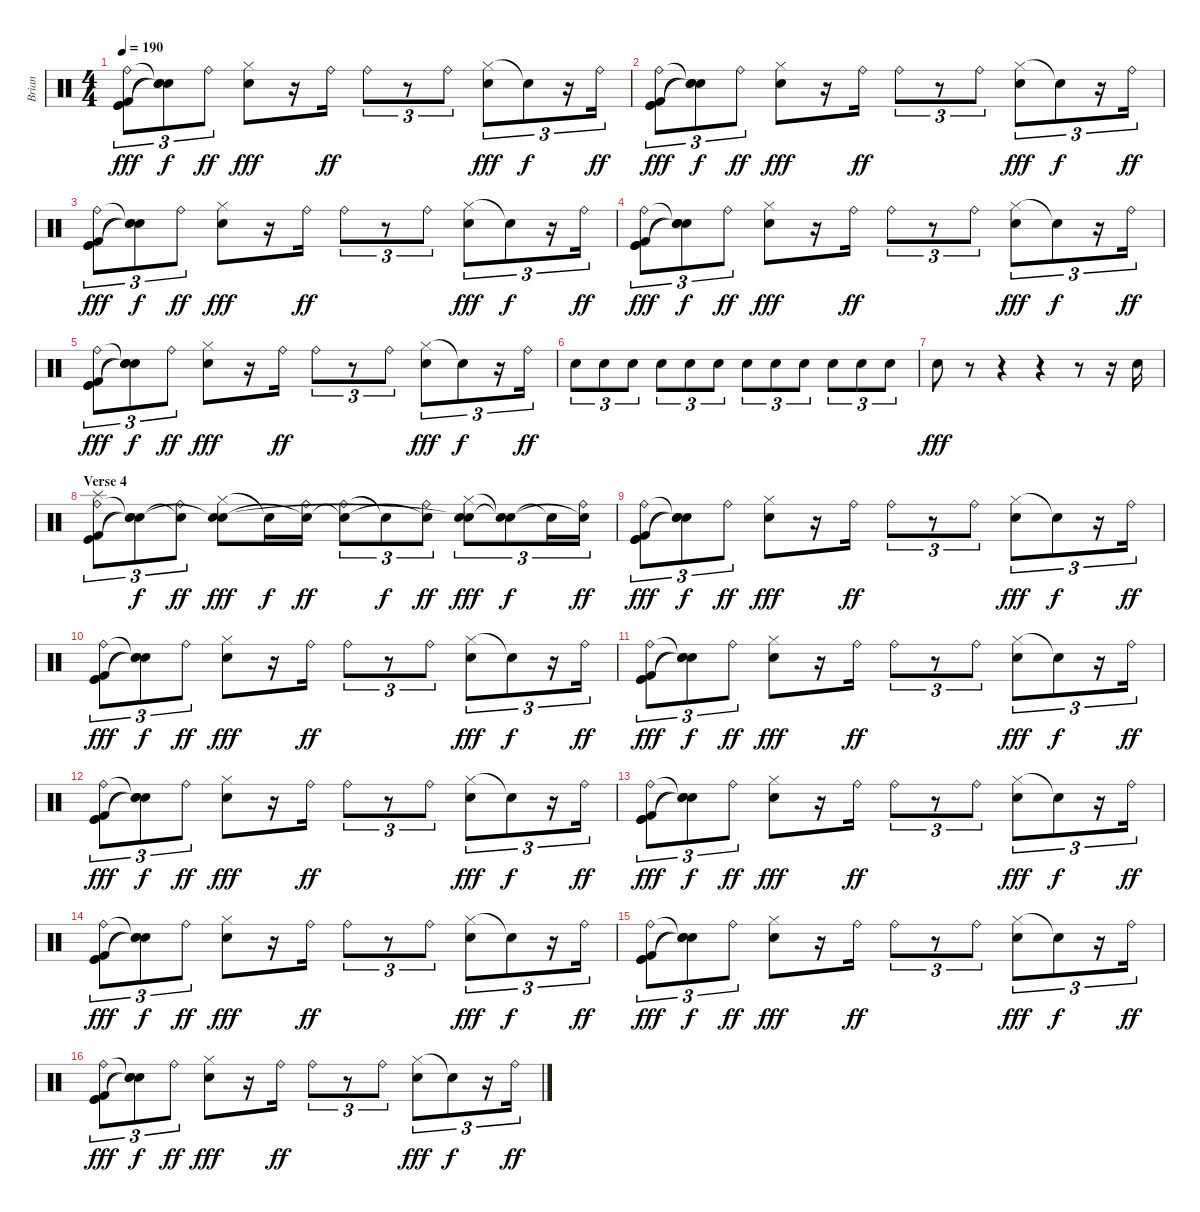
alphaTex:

\track ("Brian" "Brian") {instrument percussion}
\staff {score}
\articulation defaults
\ts (4 4)
\tempo 190
\clef neutral
\ks c
("Ride (bell)" "Kick (hit)" "Kick (hit) 2" "Kick (hit)").8{tu (3 2) dy fff} ("Snare (hit)"{t} "Snare (hit)"{t} "Snare (hit)"{t}).8{tu (3 2) dy f} "Ride (bell)".8{tu (3 2) dy ff} ("Hi-Hat (closed)" "Electric Snare (hit)").8{dy fff} r.16 "Ride (bell)".16{dy ff} "Ride (bell)".8{tu (3 2)} r.8{tu (3 2)} "Ride (bell)".8{tu (3 2)} ("Hi-Hat (closed)" "Electric Snare (hit)").8{tu (3 2) dy fff} "Snare (hit)"{t}.8{tu (3 2) dy f} r.16{tu (3 2)} "Ride (bell)".16{tu (3 2) dy ff} |
("Ride (bell)" "Kick (hit)" "Kick (hit) 2" "Kick (hit)").8{tu (3 2) dy fff} ("Snare (hit)"{t} "Snare (hit)"{t} "Snare (hit)"{t}).8{tu (3 2) dy f} "Ride (bell)".8{tu (3 2) dy ff} ("Hi-Hat (closed)" "Electric Snare (hit)").8{dy fff} r.16 "Ride (bell)".16{dy ff} "Ride (bell)".8{tu (3 2)} r.8{tu (3 2)} "Ride (bell)".8{tu (3 2)} ("Hi-Hat (closed)" "Electric Snare (hit)").8{tu (3 2) dy fff} "Snare (hit)"{t}.8{tu (3 2) dy f} r.16{tu (3 2)} "Ride (bell)".16{tu (3 2) dy ff} |
("Ride (bell)" "Kick (hit)" "Kick (hit) 2" "Kick (hit)").8{tu (3 2) dy fff} ("Snare (hit)"{t} "Snare (hit)"{t} "Snare (hit)"{t}).8{tu (3 2) dy f} "Ride (bell)".8{tu (3 2) dy ff} ("Hi-Hat (closed)" "Electric Snare (hit)").8{dy fff} r.16 "Ride (bell)".16{dy ff} "Ride (bell)".8{tu (3 2)} r.8{tu (3 2)} "Ride (bell)".8{tu (3 2)} ("Hi-Hat (closed)" "Electric Snare (hit)").8{tu (3 2) dy fff} "Snare (hit)"{t}.8{tu (3 2) dy f} r.16{tu (3 2)} "Ride (bell)".16{tu (3 2) dy ff} |
("Ride (bell)" "Kick (hit)" "Kick (hit) 2" "Kick (hit)").8{tu (3 2) dy fff} ("Snare (hit)"{t} "Snare (hit)"{t} "Snare (hit)"{t}).8{tu (3 2) dy f} "Ride (bell)".8{tu (3 2) dy ff} ("Hi-Hat (closed)" "Electric Snare (hit)").8{dy fff} r.16 "Ride (bell)".16{dy ff} "Ride (bell)".8{tu (3 2)} r.8{tu (3 2)} "Ride (bell)".8{tu (3 2)} ("Hi-Hat (closed)" "Electric Snare (hit)").8{tu (3 2) dy fff} "Snare (hit)"{t}.8{tu (3 2) dy f} r.16{tu (3 2)} "Ride (bell)".16{tu (3 2) dy ff} |
("Ride (bell)" "Kick (hit)" "Kick (hit) 2" "Kick (hit)").8{tu (3 2) dy fff} ("Snare (hit)"{t} "Snare (hit)"{t} "Snare (hit)"{t}).8{tu (3 2) dy f} "Ride (bell)".8{tu (3 2) dy ff} ("Hi-Hat (closed)" "Electric Snare (hit)").8{dy fff} r.16 "Ride (bell)".16{dy ff} "Ride (bell)".8{tu (3 2)} r.8{tu (3 2)} "Ride (bell)".8{tu (3 2)} ("Hi-Hat (closed)" "Electric Snare (hit)").8{tu (3 2) dy fff} "Snare (hit)"{t}.8{tu (3 2) dy f} r.16{tu (3 2)} "Ride (bell)".16{tu (3 2) dy ff} |
"Electric Snare (hit)".8{tu (3 2)} "Electric Snare (hit)".8{tu (3 2)} "Electric Snare (hit)".8{tu (3 2)} "Electric Snare (hit)".8{tu (3 2)} "Electric Snare (hit)".8{tu (3 2)} "Electric Snare (hit)".8{tu (3 2)} "Electric Snare (hit)".8{tu (3 2)} "Electric Snare (hit)".8{tu (3 2)} "Electric Snare (hit)".8{tu (3 2)} "Electric Snare (hit)".8{tu (3 2)} "Electric Snare (hit)".8{tu (3 2)} "Electric Snare (hit)".8{tu (3 2)} |
"Electric Snare (hit)".8{dy fff} r.8 r.4 r.4 r.8 r.16 "Electric Snare (hit)".16 |
\section ("" "Verse 4")
("Ride (bell)" "Kick (hit)" "Kick (hit) 2" "Splash (hit)").8{tu (3 2)} ("Snare (hit)"{t} "Snare (hit)"{t} "Snare (hit)"{t}).8{tu (3 2) dy f} ("Ride (bell)" "Snare (hit)"{t}).8{tu (3 2) dy ff} ("Hi-Hat (closed)" "Electric Snare (hit)" "Snare (hit)"{t}).8{dy fff} "Snare (hit)"{t}.16{dy f} ("Ride (bell)" "Snare (hit)"{t}).16{dy ff} ("Ride (bell)" "Snare (hit)"{t}).8{tu (3 2)} "Snare (hit)"{t}.8{tu (3 2) dy f} ("Ride (bell)" "Snare (hit)"{t}).8{tu (3 2) dy ff} ("Hi-Hat (closed)" "Electric Snare (hit)" "Snare (hit)"{t}).8{tu (3 2) dy fff} ("Snare (hit)"{t} "Snare (hit)"{t}).8{tu (3 2) dy f} "Snare (hit)"{t}.16{tu (3 2)} ("Ride (bell)" "Snare (hit)"{t}).16{tu (3 2) dy ff} |
("Ride (bell)" "Kick (hit)" "Kick (hit) 2" "Kick (hit)").8{tu (3 2) dy fff} ("Snare (hit)"{t} "Snare (hit)"{t} "Snare (hit)"{t}).8{tu (3 2) dy f} "Ride (bell)".8{tu (3 2) dy ff} ("Hi-Hat (closed)" "Electric Snare (hit)").8{dy fff} r.16 "Ride (bell)".16{dy ff} "Ride (bell)".8{tu (3 2)} r.8{tu (3 2)} "Ride (bell)".8{tu (3 2)} ("Hi-Hat (closed)" "Electric Snare (hit)").8{tu (3 2) dy fff} "Snare (hit)"{t}.8{tu (3 2) dy f} r.16{tu (3 2)} "Ride (bell)".16{tu (3 2) dy ff} |
("Ride (bell)" "Kick (hit)" "Kick (hit) 2" "Kick (hit)").8{tu (3 2) dy fff} ("Snare (hit)"{t} "Snare (hit)"{t} "Snare (hit)"{t}).8{tu (3 2) dy f} "Ride (bell)".8{tu (3 2) dy ff} ("Hi-Hat (closed)" "Electric Snare (hit)").8{dy fff} r.16 "Ride (bell)".16{dy ff} "Ride (bell)".8{tu (3 2)} r.8{tu (3 2)} "Ride (bell)".8{tu (3 2)} ("Hi-Hat (closed)" "Electric Snare (hit)").8{tu (3 2) dy fff} "Snare (hit)"{t}.8{tu (3 2) dy f} r.16{tu (3 2)} "Ride (bell)".16{tu (3 2) dy ff} |
("Ride (bell)" "Kick (hit)" "Kick (hit) 2" "Kick (hit)").8{tu (3 2) dy fff} ("Snare (hit)"{t} "Snare (hit)"{t} "Snare (hit)"{t}).8{tu (3 2) dy f} "Ride (bell)".8{tu (3 2) dy ff} ("Hi-Hat (closed)" "Electric Snare (hit)").8{dy fff} r.16 "Ride (bell)".16{dy ff} "Ride (bell)".8{tu (3 2)} r.8{tu (3 2)} "Ride (bell)".8{tu (3 2)} ("Hi-Hat (closed)" "Electric Snare (hit)").8{tu (3 2) dy fff} "Snare (hit)"{t}.8{tu (3 2) dy f} r.16{tu (3 2)} "Ride (bell)".16{tu (3 2) dy ff} |
("Ride (bell)" "Kick (hit)" "Kick (hit) 2" "Kick (hit)").8{tu (3 2) dy fff} ("Snare (hit)"{t} "Snare (hit)"{t} "Snare (hit)"{t}).8{tu (3 2) dy f} "Ride (bell)".8{tu (3 2) dy ff} ("Hi-Hat (closed)" "Electric Snare (hit)").8{dy fff} r.16 "Ride (bell)".16{dy ff} "Ride (bell)".8{tu (3 2)} r.8{tu (3 2)} "Ride (bell)".8{tu (3 2)} ("Hi-Hat (closed)" "Electric Snare (hit)").8{tu (3 2) dy fff} "Snare (hit)"{t}.8{tu (3 2) dy f} r.16{tu (3 2)} "Ride (bell)".16{tu (3 2) dy ff} |
("Ride (bell)" "Kick (hit)" "Kick (hit) 2" "Kick (hit)").8{tu (3 2) dy fff} ("Snare (hit)"{t} "Snare (hit)"{t} "Snare (hit)"{t}).8{tu (3 2) dy f} "Ride (bell)".8{tu (3 2) dy ff} ("Hi-Hat (closed)" "Electric Snare (hit)").8{dy fff} r.16 "Ride (bell)".16{dy ff} "Ride (bell)".8{tu (3 2)} r.8{tu (3 2)} "Ride (bell)".8{tu (3 2)} ("Hi-Hat (closed)" "Electric Snare (hit)").8{tu (3 2) dy fff} "Snare (hit)"{t}.8{tu (3 2) dy f} r.16{tu (3 2)} "Ride (bell)".16{tu (3 2) dy ff} |
("Ride (bell)" "Kick (hit)" "Kick (hit) 2" "Kick (hit)").8{tu (3 2) dy fff} ("Snare (hit)"{t} "Snare (hit)"{t} "Snare (hit)"{t}).8{tu (3 2) dy f} "Ride (bell)".8{tu (3 2) dy ff} ("Hi-Hat (closed)" "Electric Snare (hit)").8{dy fff} r.16 "Ride (bell)".16{dy ff} "Ride (bell)".8{tu (3 2)} r.8{tu (3 2)} "Ride (bell)".8{tu (3 2)} ("Hi-Hat (closed)" "Electric Snare (hit)").8{tu (3 2) dy fff} "Snare (hit)"{t}.8{tu (3 2) dy f} r.16{tu (3 2)} "Ride (bell)".16{tu (3 2) dy ff} |
("Ride (bell)" "Kick (hit)" "Kick (hit) 2" "Kick (hit)").8{tu (3 2) dy fff} ("Snare (hit)"{t} "Snare (hit)"{t} "Snare (hit)"{t}).8{tu (3 2) dy f} "Ride (bell)".8{tu (3 2) dy ff} ("Hi-Hat (closed)" "Electric Snare (hit)").8{dy fff} r.16 "Ride (bell)".16{dy ff} "Ride (bell)".8{tu (3 2)} r.8{tu (3 2)} "Ride (bell)".8{tu (3 2)} ("Hi-Hat (closed)" "Electric Snare (hit)").8{tu (3 2) dy fff} "Snare (hit)"{t}.8{tu (3 2) dy f} r.16{tu (3 2)} "Ride (bell)".16{tu (3 2) dy ff} |
("Ride (bell)" "Kick (hit)" "Kick (hit) 2" "Kick (hit)").8{tu (3 2) dy fff} ("Snare (hit)"{t} "Snare (hit)"{t} "Snare (hit)"{t}).8{tu (3 2) dy f} "Ride (bell)".8{tu (3 2) dy ff} ("Hi-Hat (closed)" "Electric Snare (hit)").8{dy fff} r.16 "Ride (bell)".16{dy ff} "Ride (bell)".8{tu (3 2)} r.8{tu (3 2)} "Ride (bell)".8{tu (3 2)} ("Hi-Hat (closed)" "Electric Snare (hit)").8{tu (3 2) dy fff} "Snare (hit)"{t}.8{tu (3 2) dy f} r.16{tu (3 2)} "Ride (bell)".16{tu (3 2) dy ff}
